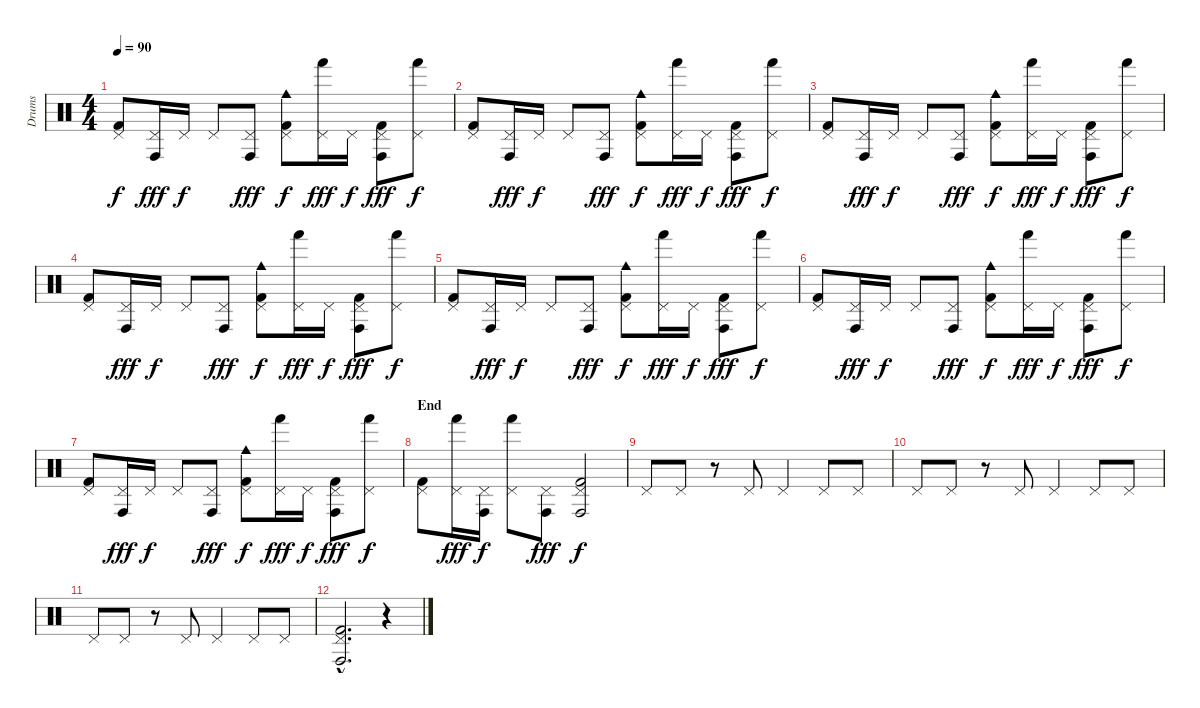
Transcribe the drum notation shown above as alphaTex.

\track (" Drums" " Drums") {instrument percussion}
\staff {score}
\articulation defaults
\ts (4 4)
\tempo 90
\clef neutral
\ks c
("Pedal Hi-Hat (hit)" "Kick (hit) 2").8{dy f} ("Pedal Hi-Hat (hit)" "Conga high (hit)").16{dy fff} "Pedal Hi-Hat (hit)".16{dy f} "Pedal Hi-Hat (hit)".8 ("Pedal Hi-Hat (hit)" "Conga high (hit)").8{dy fff} ("Pedal Hi-Hat (hit)" "Cowbell medium (hit)" "Kick (hit) 2").8{dy f} ("Pedal Hi-Hat (hit)" "Hand (hit)").16{dy fff} "Pedal Hi-Hat (hit)".16{dy f} ("Pedal Hi-Hat (hit)" "Conga high (hit)" "Kick (hit) 2").8{dy fff} ("Pedal Hi-Hat (hit)" "Hand (hit)").8{dy f} |
("Pedal Hi-Hat (hit)" "Kick (hit) 2").8 ("Pedal Hi-Hat (hit)" "Conga high (hit)").16{dy fff} "Pedal Hi-Hat (hit)".16{dy f} "Pedal Hi-Hat (hit)".8 ("Pedal Hi-Hat (hit)" "Conga high (hit)").8{dy fff} ("Pedal Hi-Hat (hit)" "Cowbell medium (hit)" "Kick (hit) 2").8{dy f} ("Pedal Hi-Hat (hit)" "Hand (hit)").16{dy fff} "Pedal Hi-Hat (hit)".16{dy f} ("Pedal Hi-Hat (hit)" "Conga high (hit)" "Kick (hit) 2").8{dy fff} ("Pedal Hi-Hat (hit)" "Hand (hit)").8{dy f} |
("Pedal Hi-Hat (hit)" "Kick (hit) 2").8 ("Pedal Hi-Hat (hit)" "Conga high (hit)").16{dy fff} "Pedal Hi-Hat (hit)".16{dy f} "Pedal Hi-Hat (hit)".8 ("Pedal Hi-Hat (hit)" "Conga high (hit)").8{dy fff} ("Pedal Hi-Hat (hit)" "Cowbell medium (hit)" "Kick (hit) 2").8{dy f} ("Pedal Hi-Hat (hit)" "Hand (hit)").16{dy fff} "Pedal Hi-Hat (hit)".16{dy f} ("Pedal Hi-Hat (hit)" "Conga high (hit)" "Kick (hit) 2").8{dy fff} ("Pedal Hi-Hat (hit)" "Hand (hit)").8{dy f} |
("Pedal Hi-Hat (hit)" "Kick (hit) 2").8 ("Pedal Hi-Hat (hit)" "Conga high (hit)").16{dy fff} "Pedal Hi-Hat (hit)".16{dy f} "Pedal Hi-Hat (hit)".8 ("Pedal Hi-Hat (hit)" "Conga high (hit)").8{dy fff} ("Pedal Hi-Hat (hit)" "Cowbell medium (hit)" "Kick (hit) 2").8{dy f} ("Pedal Hi-Hat (hit)" "Hand (hit)").16{dy fff} "Pedal Hi-Hat (hit)".16{dy f} ("Pedal Hi-Hat (hit)" "Conga high (hit)" "Kick (hit) 2").8{dy fff} ("Pedal Hi-Hat (hit)" "Hand (hit)").8{dy f} |
("Pedal Hi-Hat (hit)" "Kick (hit) 2").8 ("Pedal Hi-Hat (hit)" "Conga high (hit)").16{dy fff} "Pedal Hi-Hat (hit)".16{dy f} "Pedal Hi-Hat (hit)".8 ("Pedal Hi-Hat (hit)" "Conga high (hit)").8{dy fff} ("Pedal Hi-Hat (hit)" "Cowbell medium (hit)" "Kick (hit) 2").8{dy f} ("Pedal Hi-Hat (hit)" "Hand (hit)").16{dy fff} "Pedal Hi-Hat (hit)".16{dy f} ("Pedal Hi-Hat (hit)" "Conga high (hit)" "Kick (hit) 2").8{dy fff} ("Pedal Hi-Hat (hit)" "Hand (hit)").8{dy f} |
("Pedal Hi-Hat (hit)" "Kick (hit) 2").8 ("Pedal Hi-Hat (hit)" "Conga high (hit)").16{dy fff} "Pedal Hi-Hat (hit)".16{dy f} "Pedal Hi-Hat (hit)".8 ("Pedal Hi-Hat (hit)" "Conga high (hit)").8{dy fff} ("Pedal Hi-Hat (hit)" "Cowbell medium (hit)" "Kick (hit) 2").8{dy f} ("Pedal Hi-Hat (hit)" "Hand (hit)").16{dy fff} "Pedal Hi-Hat (hit)".16{dy f} ("Pedal Hi-Hat (hit)" "Conga high (hit)" "Kick (hit) 2").8{dy fff} ("Pedal Hi-Hat (hit)" "Hand (hit)").8{dy f} |
("Pedal Hi-Hat (hit)" "Kick (hit) 2").8 ("Pedal Hi-Hat (hit)" "Conga high (hit)").16{dy fff} "Pedal Hi-Hat (hit)".16{dy f} "Pedal Hi-Hat (hit)".8 ("Pedal Hi-Hat (hit)" "Conga high (hit)").8{dy fff} ("Pedal Hi-Hat (hit)" "Cowbell medium (hit)" "Kick (hit) 2").8{dy f} ("Pedal Hi-Hat (hit)" "Hand (hit)").16{dy fff} "Pedal Hi-Hat (hit)".16{dy f} ("Pedal Hi-Hat (hit)" "Conga high (hit)" "Kick (hit) 2").8{dy fff} ("Pedal Hi-Hat (hit)" "Hand (hit)").8{dy f} |
\section ("" "End")
("Pedal Hi-Hat (hit)" "Kick (hit) 2").8 ("Pedal Hi-Hat (hit)" "Hand (hit)").16{dy fff} ("Pedal Hi-Hat (hit)" "Conga high (hit)").16{dy f} ("Pedal Hi-Hat (hit)" "Hand (hit)").8 ("Pedal Hi-Hat (hit)" "Conga high (hit)").8{dy fff} ("Pedal Hi-Hat (hit)" "Conga high (hit)" "Kick (hit) 2").2{dy f} |
"Pedal Hi-Hat (hit)".8 "Pedal Hi-Hat (hit)".8 r.8 "Pedal Hi-Hat (hit)".8 "Pedal Hi-Hat (hit)".4 "Pedal Hi-Hat (hit)".8 "Pedal Hi-Hat (hit)".8 |
"Pedal Hi-Hat (hit)".8 "Pedal Hi-Hat (hit)".8 r.8 "Pedal Hi-Hat (hit)".8 "Pedal Hi-Hat (hit)".4 "Pedal Hi-Hat (hit)".8 "Pedal Hi-Hat (hit)".8 |
"Pedal Hi-Hat (hit)".8 "Pedal Hi-Hat (hit)".8 r.8 "Pedal Hi-Hat (hit)".8 "Pedal Hi-Hat (hit)".4 "Pedal Hi-Hat (hit)".8 "Pedal Hi-Hat (hit)".8 |
("Pedal Hi-Hat (hit)"{hac} "Conga high (hit)"{hac} "Kick (hit) 2"{hac}).2{d} r.4
